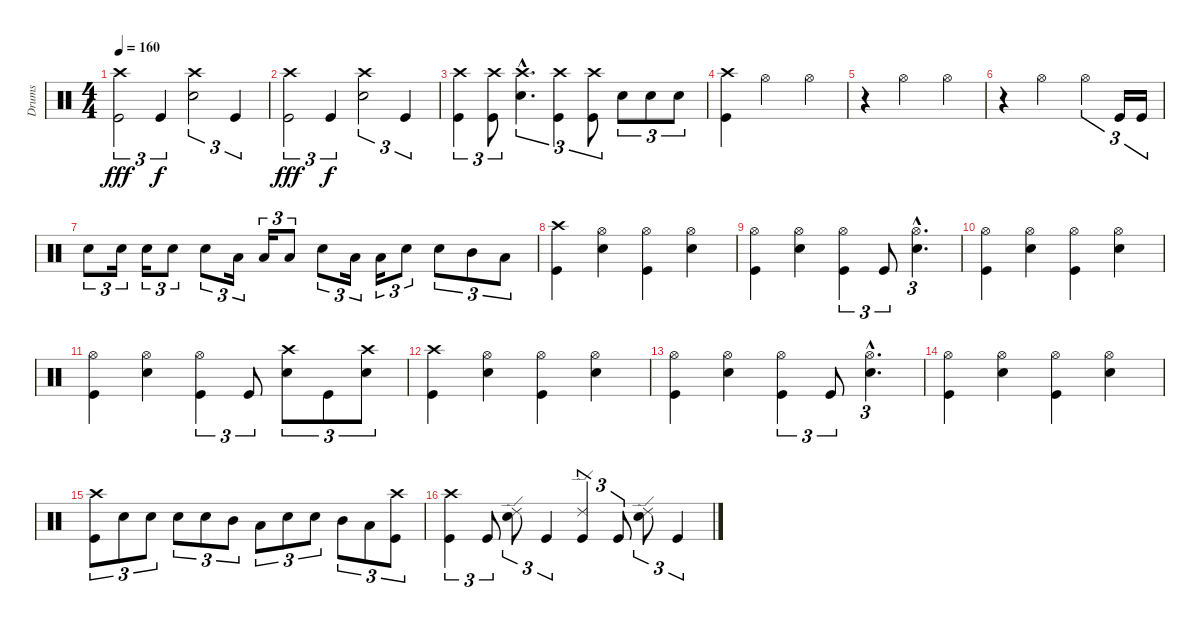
\track ("Drums" "Drums") {instrument percussion}
\staff {score}
\articulation defaults
\ts (4 4)
\tempo 160
\clef neutral
\ks c
("Crash high (hit)" "Kick (hit)").2{tu (3 2) dy fff} "Kick (hit)".4{tu (3 2) dy f} ("Crash high (hit)" "Electric Snare (hit)").2{tu (3 2)} "Kick (hit)".4{tu (3 2)} |
("Crash high (hit)" "Kick (hit)").2{tu (3 2) dy fff} "Kick (hit)".4{tu (3 2) dy f} ("Crash high (hit)" "Electric Snare (hit)").2{tu (3 2)} "Kick (hit)".4{tu (3 2)} |
("Crash high (hit)" "Kick (hit)").4{tu (3 2)} ("Crash high (hit)" "Kick (hit)").8{tu (3 2)} ("Crash high (hit)"{hac} "Electric Snare (hit)"{hac}).4{d tu (3 2)} ("Crash high (hit)" "Kick (hit)").4{tu (3 2)} ("Crash high (hit)" "Kick (hit)").8{tu (3 2)} "Electric Snare (hit)".8{tu (3 2)} "Electric Snare (hit)".8{tu (3 2)} "Electric Snare (hit)".8{tu (3 2)} |
("Crash high (hit)" "Kick (hit)").4 "Hi-Hat (open)".2 "Hi-Hat (open)".4 |
r.4 "Hi-Hat (open)".2 "Hi-Hat (open)".4 |
r.4 "Hi-Hat (open)".2 "Hi-Hat (open)".4{tu (3 2)} "Kick (hit)".16{tu (3 2)} "Kick (hit)".16{tu (3 2)} |
"Electric Snare (hit)".8{tu (3 2)} "Electric Snare (hit)".16{tu (3 2)} "Electric Snare (hit)".16{tu (3 2)} "Electric Snare (hit)".8{tu (3 2)} "Electric Snare (hit)".8{tu (3 2)} "Low Tom (hit)".16{tu (3 2)} "Low Tom (hit)".16{tu (3 2)} "Low Tom (hit)".8{tu (3 2)} "Electric Snare (hit)".8{tu (3 2)} "Low Tom (hit)".16{tu (3 2)} "Low Tom (hit)".16{tu (3 2)} "Electric Snare (hit)".8{tu (3 2)} "Electric Snare (hit)".8{tu (3 2)} "Mid Tom (hit)".8{tu (3 2)} "Low Tom (hit)".8{tu (3 2)} |
("Crash high (hit)" "Kick (hit)").4 ("Hi-Hat (open)" "Electric Snare (hit)").4 ("Hi-Hat (open)" "Kick (hit)").4 ("Hi-Hat (open)" "Electric Snare (hit)").4 |
("Hi-Hat (open)" "Kick (hit)").4 ("Hi-Hat (open)" "Electric Snare (hit)").4 ("Hi-Hat (open)" "Kick (hit)").4{tu (3 2)} "Kick (hit)".8{tu (3 2)} ("Hi-Hat (open)"{hac} "Electric Snare (hit)"{hac}).4{d tu (3 2)} |
("Hi-Hat (open)" "Kick (hit)").4 ("Hi-Hat (open)" "Electric Snare (hit)").4 ("Hi-Hat (open)" "Kick (hit)").4 ("Hi-Hat (open)" "Electric Snare (hit)").4 |
("Hi-Hat (open)" "Kick (hit)").4 ("Hi-Hat (open)" "Electric Snare (hit)").4 ("Hi-Hat (open)" "Kick (hit)").4{tu (3 2)} "Kick (hit)".8{tu (3 2)} ("Crash high (hit)" "Electric Snare (hit)").8{tu (3 2)} "Kick (hit)".8{tu (3 2)} ("Crash high (hit)" "Electric Snare (hit)").8{tu (3 2)} |
("Crash high (hit)" "Kick (hit)").4 ("Hi-Hat (open)" "Electric Snare (hit)").4 ("Hi-Hat (open)" "Kick (hit)").4 ("Hi-Hat (open)" "Electric Snare (hit)").4 |
("Hi-Hat (open)" "Kick (hit)").4 ("Hi-Hat (open)" "Electric Snare (hit)").4 ("Hi-Hat (open)" "Kick (hit)").4{tu (3 2)} "Kick (hit)".8{tu (3 2)} ("Hi-Hat (open)"{hac} "Electric Snare (hit)"{hac}).4{d tu (3 2)} |
("Hi-Hat (open)" "Kick (hit)").4 ("Hi-Hat (open)" "Electric Snare (hit)").4 ("Hi-Hat (open)" "Kick (hit)").4 ("Hi-Hat (open)" "Electric Snare (hit)").4 |
("Crash high (hit)" "Kick (hit)").8{tu (3 2)} "Electric Snare (hit)".8{tu (3 2)} "Electric Snare (hit)".8{tu (3 2)} "Electric Snare (hit)".8{tu (3 2)} "Electric Snare (hit)".8{tu (3 2)} "Mid Tom (hit)".8{tu (3 2)} "Low Tom (hit)".8{tu (3 2)} "Electric Snare (hit)".8{tu (3 2)} "Electric Snare (hit)".8{tu (3 2)} "Mid Tom (hit)".8{tu (3 2)} "Low Tom (hit)".8{tu (3 2)} ("Crash high (hit)" "Kick (hit)").8{tu (3 2)} |
("Crash high (hit)" "Kick (hit)").4{tu (3 2)} "Kick (hit)".8{tu (3 2)} ("Ride (edge) 2" "Electric Snare (hit)").8{tu (3 2)} "Kick (hit)".4{tu (3 2)} ("Ride (edge) 2" "Kick (hit)").4{tu (3 2)} "Kick (hit)".8{tu (3 2)} ("Ride (edge) 2" "Electric Snare (hit)").8{tu (3 2)} "Kick (hit)".4{tu (3 2)}
